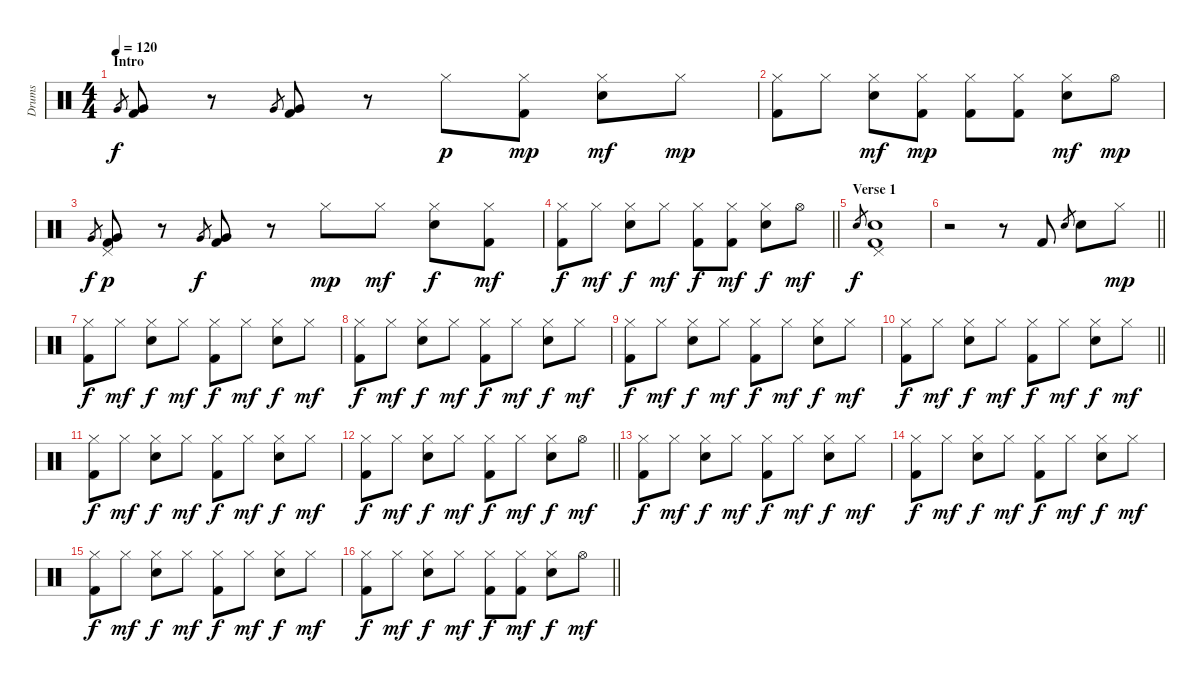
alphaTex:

\track ("Drums" "Drums") {instrument percussion}
\staff {score}
\articulation defaults
\ts (4 4)
\section ("" "Intro")
\tempo 120
\clef neutral
\ks c "Very Low Tom (hit)".8{gr dy f}
("Very Low Tom (hit)" "Kick (hit) 2").8 r.8 "Very Low Tom (hit)".8{gr} ("Very Low Tom (hit)" "Kick (hit) 2").8 r.8 "Hi-Hat (closed)".8{dy p} ("Hi-Hat (closed)" "Kick (hit) 2").8{dy mp} ("Hi-Hat (closed)" "Hand Clap (hit)").8{dy mf} "Hi-Hat (closed)".8{dy mp} |
("Hi-Hat (closed)" "Kick (hit) 2").8 "Hi-Hat (closed)".8 ("Hi-Hat (closed)" "Hand Clap (hit)").8{dy mf} ("Hi-Hat (closed)" "Kick (hit) 2").8{dy mp} ("Hi-Hat (closed)" "Kick (hit) 2").8 ("Hi-Hat (closed)" "Kick (hit) 2").8 ("Hi-Hat (closed)" "Hand Clap (hit)").8{dy mf} "Hi-Hat (open)".8{dy mp} |
"Very Low Tom (hit)".8{gr dy f} ("Pedal Hi-Hat (hit)" "Very Low Tom (hit)" "Kick (hit) 2").8{dy p} r.8 "Very Low Tom (hit)".8{gr dy f} ("Very Low Tom (hit)" "Kick (hit) 2").8 r.8 "Hi-Hat (closed)".8{dy mp} "Hi-Hat (closed)".8{dy mf} ("Hi-Hat (closed)" "Snare (hit) 2").8{dy f} ("Hi-Hat (closed)" "Kick (hit) 2").8{dy mf} |
\barLineRight lightlight
("Hi-Hat (closed)" "Kick (hit) 2").8{dy f} "Hi-Hat (closed)".8{dy mf} ("Hi-Hat (closed)" "Snare (hit) 2").8{dy f} "Hi-Hat (closed)".8{dy mf} ("Hi-Hat (closed)" "Kick (hit) 2").8{dy f} ("Hi-Hat (closed)" "Kick (hit) 2").8{dy mf} ("Hi-Hat (closed)" "Snare (hit) 2").8{dy f} "Hi-Hat (open)".8{dy mf} |
\section ("" "Verse 1")
"Snare (hit) 2".8{gr dy f} ("Pedal Hi-Hat (hit)" "Snare (hit) 2" "Kick (hit) 2").1 |
\barLineRight lightlight
r.2 r.8 "Kick (hit) 2".8 "Snare (hit) 2".8{gr} "Snare (hit) 2".8 "Hi-Hat (closed)".8{dy mp} |
("Hi-Hat (closed)" "Kick (hit) 2").8{dy f} "Hi-Hat (closed)".8{dy mf} ("Hi-Hat (closed)" "Snare (hit) 2").8{dy f} "Hi-Hat (closed)".8{dy mf} ("Hi-Hat (closed)" "Kick (hit) 2").8{dy f} "Hi-Hat (closed)".8{dy mf} ("Hi-Hat (closed)" "Snare (hit) 2").8{dy f} "Hi-Hat (closed)".8{dy mf} |
("Hi-Hat (closed)" "Kick (hit) 2").8{dy f} "Hi-Hat (closed)".8{dy mf} ("Hi-Hat (closed)" "Snare (hit) 2").8{dy f} "Hi-Hat (closed)".8{dy mf} ("Hi-Hat (closed)" "Kick (hit) 2").8{dy f} "Hi-Hat (closed)".8{dy mf} ("Hi-Hat (closed)" "Snare (hit) 2").8{dy f} "Hi-Hat (closed)".8{dy mf} |
("Hi-Hat (closed)" "Kick (hit) 2").8{dy f} "Hi-Hat (closed)".8{dy mf} ("Hi-Hat (closed)" "Snare (hit) 2").8{dy f} "Hi-Hat (closed)".8{dy mf} ("Hi-Hat (closed)" "Kick (hit) 2").8{dy f} "Hi-Hat (closed)".8{dy mf} ("Hi-Hat (closed)" "Snare (hit) 2").8{dy f} "Hi-Hat (closed)".8{dy mf} |
\barLineRight lightlight
("Hi-Hat (closed)" "Kick (hit) 2").8{dy f} "Hi-Hat (closed)".8{dy mf} ("Hi-Hat (closed)" "Snare (hit) 2").8{dy f} "Hi-Hat (closed)".8{dy mf} ("Hi-Hat (closed)" "Kick (hit) 2").8{dy f} "Hi-Hat (closed)".8{dy mf} ("Hi-Hat (closed)" "Snare (hit) 2").8{dy f} "Hi-Hat (closed)".8{dy mf} |
("Hi-Hat (closed)" "Kick (hit) 2").8{dy f} "Hi-Hat (closed)".8{dy mf} ("Hi-Hat (closed)" "Snare (hit) 2").8{dy f} "Hi-Hat (closed)".8{dy mf} ("Hi-Hat (closed)" "Kick (hit) 2").8{dy f} "Hi-Hat (closed)".8{dy mf} ("Hi-Hat (closed)" "Snare (hit) 2").8{dy f} "Hi-Hat (closed)".8{dy mf} |
\barLineRight lightlight
("Hi-Hat (closed)" "Kick (hit) 2").8{dy f} "Hi-Hat (closed)".8{dy mf} ("Hi-Hat (closed)" "Snare (hit) 2").8{dy f} "Hi-Hat (closed)".8{dy mf} ("Hi-Hat (closed)" "Kick (hit) 2").8{dy f} "Hi-Hat (closed)".8{dy mf} ("Hi-Hat (closed)" "Snare (hit) 2").8{dy f} "Hi-Hat (open)".8{dy mf} |
("Hi-Hat (closed)" "Kick (hit) 2").8{dy f} "Hi-Hat (closed)".8{dy mf} ("Hi-Hat (closed)" "Snare (hit) 2").8{dy f} "Hi-Hat (closed)".8{dy mf} ("Hi-Hat (closed)" "Kick (hit) 2").8{dy f} "Hi-Hat (closed)".8{dy mf} ("Hi-Hat (closed)" "Snare (hit) 2").8{dy f} "Hi-Hat (closed)".8{dy mf} |
("Hi-Hat (closed)" "Kick (hit) 2").8{dy f} "Hi-Hat (closed)".8{dy mf} ("Hi-Hat (closed)" "Snare (hit) 2").8{dy f} "Hi-Hat (closed)".8{dy mf} ("Hi-Hat (closed)" "Kick (hit) 2").8{dy f} "Hi-Hat (closed)".8{dy mf} ("Hi-Hat (closed)" "Snare (hit) 2").8{dy f} "Hi-Hat (closed)".8{dy mf} |
("Hi-Hat (closed)" "Kick (hit) 2").8{dy f} "Hi-Hat (closed)".8{dy mf} ("Hi-Hat (closed)" "Snare (hit) 2").8{dy f} "Hi-Hat (closed)".8{dy mf} ("Hi-Hat (closed)" "Kick (hit) 2").8{dy f} "Hi-Hat (closed)".8{dy mf} ("Hi-Hat (closed)" "Snare (hit) 2").8{dy f} "Hi-Hat (closed)".8{dy mf} |
\barLineRight lightlight
("Hi-Hat (closed)" "Kick (hit) 2").8{dy f} "Hi-Hat (closed)".8{dy mf} ("Hi-Hat (closed)" "Snare (hit) 2").8{dy f} "Hi-Hat (closed)".8{dy mf} ("Hi-Hat (closed)" "Kick (hit) 2").8{dy f} ("Hi-Hat (closed)" "Kick (hit) 2").8{dy mf} ("Hi-Hat (closed)" "Snare (hit) 2").8{dy f} "Hi-Hat (open)".8{dy mf}
